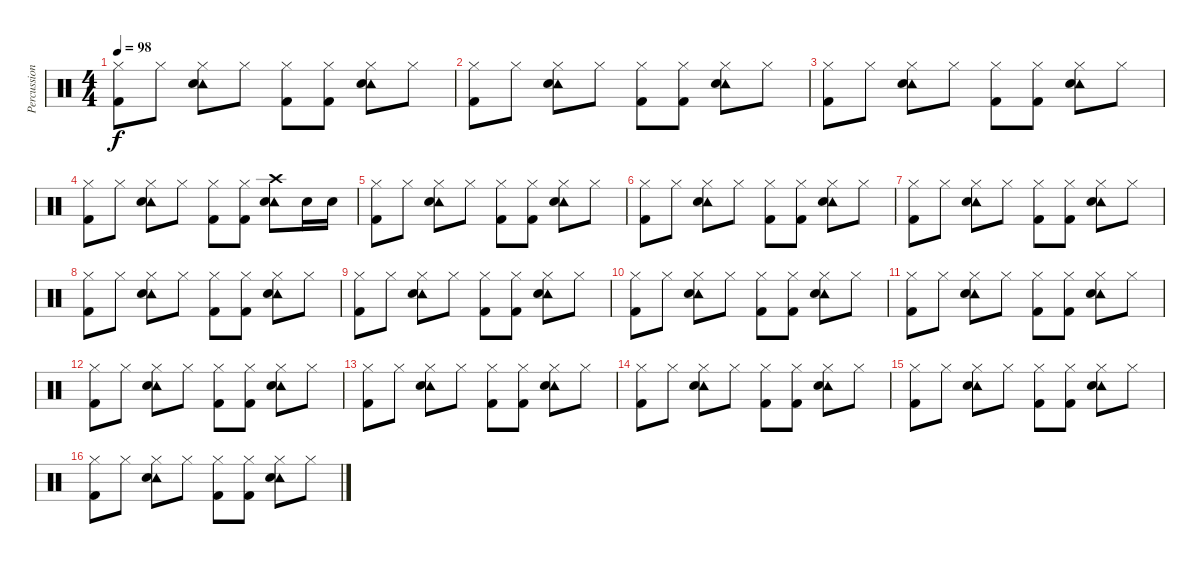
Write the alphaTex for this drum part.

\track ("Percussion" "Percussion") {instrument percussion}
\staff {score}
\articulation defaults
\ts (4 4)
\tempo 98
\clef neutral
\ks c
("Hi-Hat (closed)" "Kick (hit) 2").8{dy f} "Hi-Hat (closed)".8 ("Tambourine (hit)" "Hi-Hat (closed)" "Snare (hit) 2").8 "Hi-Hat (closed)".8 ("Hi-Hat (closed)" "Kick (hit) 2").8 ("Hi-Hat (closed)" "Kick (hit) 2").8 ("Tambourine (hit)" "Hi-Hat (closed)" "Snare (hit) 2").8 "Hi-Hat (closed)".8 |
("Hi-Hat (closed)" "Kick (hit) 2").8 "Hi-Hat (closed)".8 ("Tambourine (hit)" "Hi-Hat (closed)" "Snare (hit) 2").8 "Hi-Hat (closed)".8 ("Hi-Hat (closed)" "Kick (hit) 2").8 ("Hi-Hat (closed)" "Kick (hit) 2").8 ("Tambourine (hit)" "Hi-Hat (closed)" "Snare (hit) 2").8 "Hi-Hat (closed)".8 |
("Hi-Hat (closed)" "Kick (hit) 2").8 "Hi-Hat (closed)".8 ("Tambourine (hit)" "Hi-Hat (closed)" "Snare (hit) 2").8 "Hi-Hat (closed)".8 ("Hi-Hat (closed)" "Kick (hit) 2").8 ("Hi-Hat (closed)" "Kick (hit) 2").8 ("Tambourine (hit)" "Hi-Hat (closed)" "Snare (hit) 2").8 "Hi-Hat (closed)".8 |
("Hi-Hat (closed)" "Kick (hit) 2").8 "Hi-Hat (closed)".8 ("Tambourine (hit)" "Hi-Hat (closed)" "Snare (hit) 2").8 "Hi-Hat (closed)".8 ("Hi-Hat (closed)" "Kick (hit) 2").8 ("Hi-Hat (closed)" "Kick (hit) 2").8 ("Tambourine (hit)" "Crash high (hit)" "Snare (hit) 2").8 "Snare (hit) 2".16 "Snare (hit) 2".16 |
("Hi-Hat (closed)" "Kick (hit) 2").8 "Hi-Hat (closed)".8 ("Tambourine (hit)" "Hi-Hat (closed)" "Snare (hit) 2").8 "Hi-Hat (closed)".8 ("Hi-Hat (closed)" "Kick (hit) 2").8 ("Hi-Hat (closed)" "Kick (hit) 2").8 ("Tambourine (hit)" "Hi-Hat (closed)" "Snare (hit) 2").8 "Hi-Hat (closed)".8 |
("Hi-Hat (closed)" "Kick (hit) 2").8 "Hi-Hat (closed)".8 ("Tambourine (hit)" "Hi-Hat (closed)" "Snare (hit) 2").8 "Hi-Hat (closed)".8 ("Hi-Hat (closed)" "Kick (hit) 2").8 ("Hi-Hat (closed)" "Kick (hit) 2").8 ("Tambourine (hit)" "Hi-Hat (closed)" "Snare (hit) 2").8 "Hi-Hat (closed)".8 |
("Hi-Hat (closed)" "Kick (hit) 2").8 "Hi-Hat (closed)".8 ("Tambourine (hit)" "Hi-Hat (closed)" "Snare (hit) 2").8 "Hi-Hat (closed)".8 ("Hi-Hat (closed)" "Kick (hit) 2").8 ("Hi-Hat (closed)" "Kick (hit) 2").8 ("Tambourine (hit)" "Hi-Hat (closed)" "Snare (hit) 2").8 "Hi-Hat (closed)".8 |
("Hi-Hat (closed)" "Kick (hit) 2").8 "Hi-Hat (closed)".8 ("Tambourine (hit)" "Hi-Hat (closed)" "Snare (hit) 2").8 "Hi-Hat (closed)".8 ("Hi-Hat (closed)" "Kick (hit) 2").8 ("Hi-Hat (closed)" "Kick (hit) 2").8 ("Tambourine (hit)" "Hi-Hat (closed)" "Snare (hit) 2").8 "Hi-Hat (closed)".8 |
("Hi-Hat (closed)" "Kick (hit) 2").8 "Hi-Hat (closed)".8 ("Tambourine (hit)" "Hi-Hat (closed)" "Snare (hit) 2").8 "Hi-Hat (closed)".8 ("Hi-Hat (closed)" "Kick (hit) 2").8 ("Hi-Hat (closed)" "Kick (hit) 2").8 ("Tambourine (hit)" "Hi-Hat (closed)" "Snare (hit) 2").8 "Hi-Hat (closed)".8 |
("Hi-Hat (closed)" "Kick (hit) 2").8 "Hi-Hat (closed)".8 ("Tambourine (hit)" "Hi-Hat (closed)" "Snare (hit) 2").8 "Hi-Hat (closed)".8 ("Hi-Hat (closed)" "Kick (hit) 2").8 ("Hi-Hat (closed)" "Kick (hit) 2").8 ("Tambourine (hit)" "Hi-Hat (closed)" "Snare (hit) 2").8 "Hi-Hat (closed)".8 |
("Hi-Hat (closed)" "Kick (hit) 2").8 "Hi-Hat (closed)".8 ("Tambourine (hit)" "Hi-Hat (closed)" "Snare (hit) 2").8 "Hi-Hat (closed)".8 ("Hi-Hat (closed)" "Kick (hit) 2").8 ("Hi-Hat (closed)" "Kick (hit) 2").8 ("Tambourine (hit)" "Hi-Hat (closed)" "Snare (hit) 2").8 "Hi-Hat (closed)".8 |
("Hi-Hat (closed)" "Kick (hit) 2").8 "Hi-Hat (closed)".8 ("Tambourine (hit)" "Hi-Hat (closed)" "Snare (hit) 2").8 "Hi-Hat (closed)".8 ("Hi-Hat (closed)" "Kick (hit) 2").8 ("Hi-Hat (closed)" "Kick (hit) 2").8 ("Tambourine (hit)" "Hi-Hat (closed)" "Snare (hit) 2").8 "Hi-Hat (closed)".8 |
("Hi-Hat (closed)" "Kick (hit) 2").8 "Hi-Hat (closed)".8 ("Tambourine (hit)" "Hi-Hat (closed)" "Snare (hit) 2").8 "Hi-Hat (closed)".8 ("Hi-Hat (closed)" "Kick (hit) 2").8 ("Hi-Hat (closed)" "Kick (hit) 2").8 ("Tambourine (hit)" "Hi-Hat (closed)" "Snare (hit) 2").8 "Hi-Hat (closed)".8 |
("Hi-Hat (closed)" "Kick (hit) 2").8 "Hi-Hat (closed)".8 ("Tambourine (hit)" "Hi-Hat (closed)" "Snare (hit) 2").8 "Hi-Hat (closed)".8 ("Hi-Hat (closed)" "Kick (hit) 2").8 ("Hi-Hat (closed)" "Kick (hit) 2").8 ("Tambourine (hit)" "Hi-Hat (closed)" "Snare (hit) 2").8 "Hi-Hat (closed)".8 |
("Hi-Hat (closed)" "Kick (hit) 2").8 "Hi-Hat (closed)".8 ("Tambourine (hit)" "Hi-Hat (closed)" "Snare (hit) 2").8 "Hi-Hat (closed)".8 ("Hi-Hat (closed)" "Kick (hit) 2").8 ("Hi-Hat (closed)" "Kick (hit) 2").8 ("Tambourine (hit)" "Hi-Hat (closed)" "Snare (hit) 2").8 "Hi-Hat (closed)".8 |
("Hi-Hat (closed)" "Kick (hit) 2").8 "Hi-Hat (closed)".8 ("Tambourine (hit)" "Hi-Hat (closed)" "Snare (hit) 2").8 "Hi-Hat (closed)".8 ("Hi-Hat (closed)" "Kick (hit) 2").8 ("Hi-Hat (closed)" "Kick (hit) 2").8 ("Tambourine (hit)" "Hi-Hat (closed)" "Snare (hit) 2").8 "Hi-Hat (closed)".8
